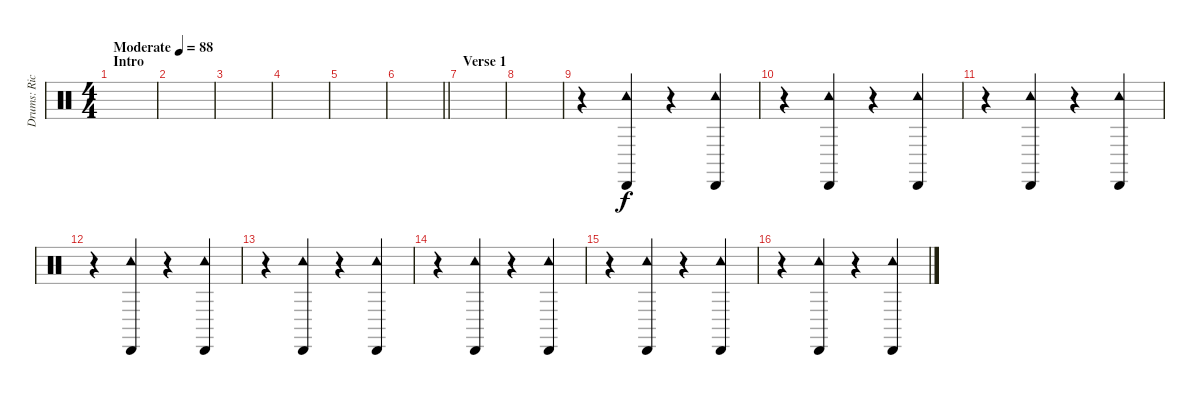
\track ("Drums: Richard Allen" "Drums: Ric") {instrument percussion}
\staff {score}
\articulation defaults
\ts (4 4)
\section ("" "Intro")
\tempo (88 "Moderate")
\clef neutral
\ks c
|
|
|
|
|
\barLineRight lightlight
|
\section ("" "Verse 1")
|
|
r.4 ("Cabasa (hit)" "Tambourine (hit)").4 r.4 ("Cabasa (hit)" "Tambourine (hit)").4 |
r.4 ("Cabasa (hit)" "Tambourine (hit)").4 r.4 ("Cabasa (hit)" "Tambourine (hit)").4 |
r.4 ("Cabasa (hit)" "Tambourine (hit)").4 r.4 ("Cabasa (hit)" "Tambourine (hit)").4 |
r.4 ("Cabasa (hit)" "Tambourine (hit)").4 r.4 ("Cabasa (hit)" "Tambourine (hit)").4 |
r.4 ("Cabasa (hit)" "Tambourine (hit)").4 r.4 ("Cabasa (hit)" "Tambourine (hit)").4 |
r.4 ("Cabasa (hit)" "Tambourine (hit)").4 r.4 ("Cabasa (hit)" "Tambourine (hit)").4 |
r.4 ("Cabasa (hit)" "Tambourine (hit)").4 r.4 ("Cabasa (hit)" "Tambourine (hit)").4 |
r.4 ("Cabasa (hit)" "Tambourine (hit)").4 r.4 ("Cabasa (hit)" "Tambourine (hit)").4
